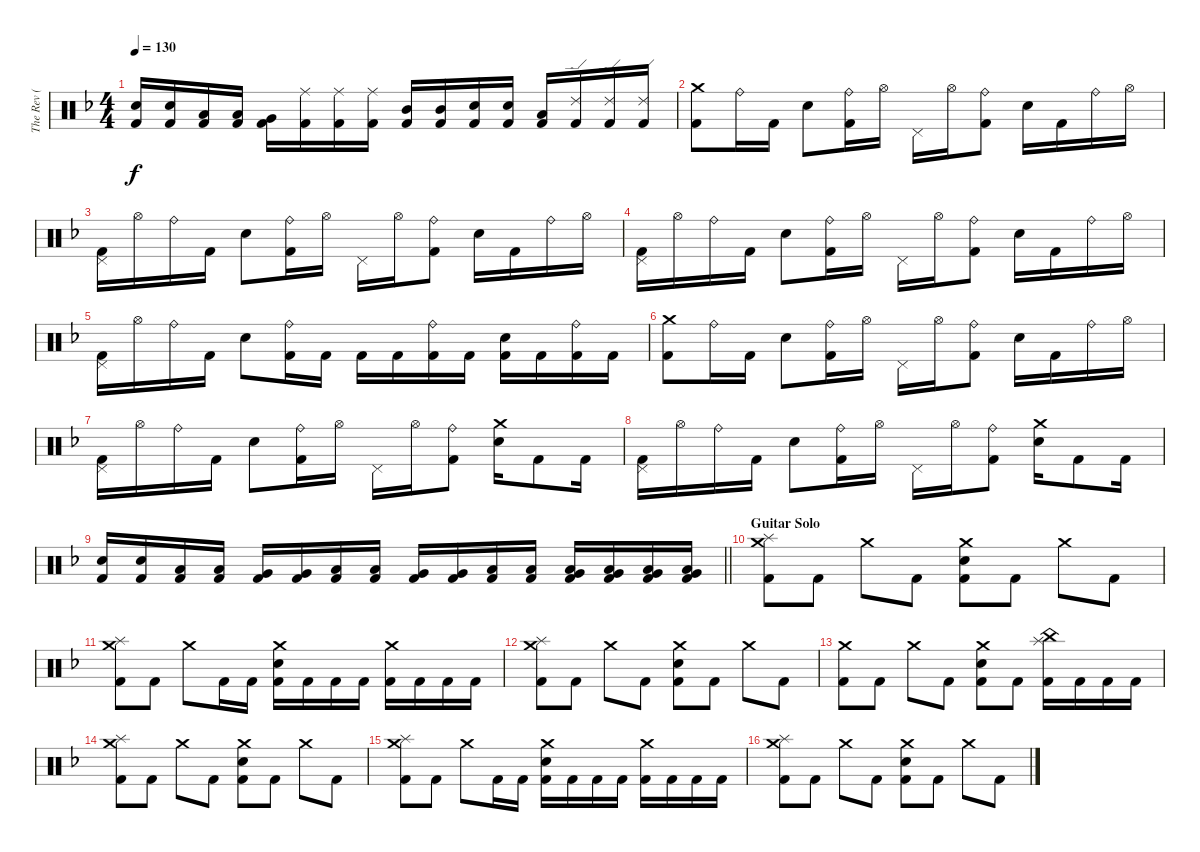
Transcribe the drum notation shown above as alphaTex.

\track ("The Rev ( Drums )" "The Rev ( ") {instrument percussion}
\staff {score}
\articulation defaults
\ts (4 4)
\tempo 130
\clef neutral
\ks f
("Snare (hit) 2" "Kick (hit) 2").16{dy f} ("Snare (hit) 2" "Kick (hit) 2").16 ("Low Tom (hit)" "Kick (hit) 2").16 ("Low Tom (hit)" "Kick (hit) 2").16 ("Very Low Tom (hit)" "Kick (hit) 2").16 ("Ride (middle)" "Kick (hit) 2").16 ("Ride (middle)" "Kick (hit) 2").16 ("Ride (middle)" "Kick (hit) 2").16 ("Mid Tom (hit)" "Kick (hit) 2").16 ("Mid Tom (hit)" "Kick (hit) 2").16 ("Snare (hit) 2" "Kick (hit) 2").16 ("Snare (hit) 2" "Kick (hit) 2").16 ("Low Tom (hit)" "Kick (hit) 2").16 ("Ride (edge) 2" "Kick (hit) 2").16 ("Ride (edge) 2" "Kick (hit) 2").16 ("Ride (edge) 2" "Kick (hit) 2").16 |
("Crash medium (hit)" "Kick (hit) 2").8 "Ride (bell)".16 "Kick (hit) 2".16 "Snare (hit) 2".8 ("Ride (bell)" "Kick (hit) 2").16 "Hi-Hat (open)".16 "Pedal Hi-Hat (hit)".16 "Hi-Hat (open)".16 ("Ride (bell)" "Kick (hit) 2").8 "Snare (hit) 2".16 "Kick (hit) 2".16 "Ride (bell)".16 "Hi-Hat (open)".16 |
("Pedal Hi-Hat (hit)" "Kick (hit) 2").16 "Hi-Hat (open)".16 "Ride (bell)".16 "Kick (hit) 2".16 "Snare (hit) 2".8 ("Ride (bell)" "Kick (hit) 2").16 "Hi-Hat (open)".16 "Pedal Hi-Hat (hit)".16 "Hi-Hat (open)".16 ("Ride (bell)" "Kick (hit) 2").8 "Snare (hit) 2".16 "Kick (hit) 2".16 "Ride (bell)".16 "Hi-Hat (open)".16 |
("Pedal Hi-Hat (hit)" "Kick (hit) 2").16 "Hi-Hat (open)".16 "Ride (bell)".16 "Kick (hit) 2".16 "Snare (hit) 2".8 ("Ride (bell)" "Kick (hit) 2").16 "Hi-Hat (open)".16 "Pedal Hi-Hat (hit)".16 "Hi-Hat (open)".16 ("Ride (bell)" "Kick (hit) 2").8 "Snare (hit) 2".16 "Kick (hit) 2".16 "Ride (bell)".16 "Hi-Hat (open)".16 |
("Pedal Hi-Hat (hit)" "Kick (hit) 2").16 "Hi-Hat (open)".16 "Ride (bell)".16 "Kick (hit) 2".16 "Snare (hit) 2".8 ("Ride (bell)" "Kick (hit) 2").16 "Kick (hit) 2".16 "Kick (hit) 2".16 "Kick (hit) 2".16 ("Ride (bell)" "Kick (hit) 2").16 "Kick (hit) 2".16 ("Snare (hit) 2" "Kick (hit) 2").16 "Kick (hit) 2".16 ("Ride (bell)" "Kick (hit) 2").16 "Kick (hit) 2".16 |
("Crash medium (hit)" "Kick (hit) 2").8 "Ride (bell)".16 "Kick (hit) 2".16 "Snare (hit) 2".8 ("Ride (bell)" "Kick (hit) 2").16 "Hi-Hat (open)".16 "Pedal Hi-Hat (hit)".16 "Hi-Hat (open)".16 ("Ride (bell)" "Kick (hit) 2").8 "Snare (hit) 2".16 "Kick (hit) 2".16 "Ride (bell)".16 "Hi-Hat (open)".16 |
("Pedal Hi-Hat (hit)" "Kick (hit) 2").16 "Hi-Hat (open)".16 "Ride (bell)".16 "Kick (hit) 2".16 "Snare (hit) 2".8 ("Ride (bell)" "Kick (hit) 2").16 "Hi-Hat (open)".16 "Pedal Hi-Hat (hit)".16 "Hi-Hat (open)".16 ("Ride (bell)" "Kick (hit) 2").8 ("Crash medium (hit)" "Snare (hit) 2").16 "Kick (hit) 2".8 "Kick (hit) 2".16 |
("Pedal Hi-Hat (hit)" "Kick (hit) 2").16 "Hi-Hat (open)".16 "Ride (bell)".16 "Kick (hit) 2".16 "Snare (hit) 2".8 ("Ride (bell)" "Kick (hit) 2").16 "Hi-Hat (open)".16 "Pedal Hi-Hat (hit)".16 "Hi-Hat (open)".16 ("Ride (bell)" "Kick (hit) 2").8 ("Crash medium (hit)" "Snare (hit) 2").16 "Kick (hit) 2".8 "Kick (hit) 2".16 |
\barLineRight lightlight
("Snare (hit) 2" "Kick (hit) 2").16 ("Snare (hit) 2" "Kick (hit) 2").16 ("Low Tom (hit)" "Kick (hit) 2").16 ("Low Tom (hit)" "Kick (hit) 2").16 ("Very Low Tom (hit)" "Kick (hit) 2").16 ("Very Low Tom (hit)" "Kick (hit) 2").16 ("Low Floor Tom (hit)" "Kick (hit) 2").16 ("Low Floor Tom (hit)" "Kick (hit) 2").16 ("Very Low Tom (hit)" "Kick (hit) 2").16 ("Very Low Tom (hit)" "Kick (hit) 2").16 ("Low Floor Tom (hit)" "Kick (hit) 2").16 ("Low Floor Tom (hit)" "Kick (hit) 2").16 ("Very Low Tom (hit)" "Low Floor Tom (hit)" "Kick (hit) 2").16 ("Very Low Tom (hit)" "Low Floor Tom (hit)" "Kick (hit) 2").16 ("Very Low Tom (hit)" "Low Floor Tom (hit)" "Kick (hit) 2").16 ("Very Low Tom (hit)" "Low Floor Tom (hit)" "Kick (hit) 2").16 |
\section ("" "Guitar Solo")
("Crash medium (hit)" "Splash (hit)" "Kick (hit) 2").8 "Kick (hit) 2".8 "Crash medium (hit)".8 "Kick (hit) 2".8 ("Crash medium (hit)" "Snare (hit) 2" "Kick (hit) 2").8 "Kick (hit) 2".8 "Crash medium (hit)".8 "Kick (hit) 2".8 |
("Crash medium (hit)" "Splash (hit)" "Kick (hit) 2").8 "Kick (hit) 2".8 "Crash medium (hit)".8 "Kick (hit) 2".16 "Kick (hit) 2".16 ("Crash medium (hit)" "Snare (hit) 2" "Kick (hit) 2").16 "Kick (hit) 2".16 "Kick (hit) 2".16 "Kick (hit) 2".16 ("Crash medium (hit)" "Kick (hit) 2").16 "Kick (hit) 2".16 "Kick (hit) 2".16 "Kick (hit) 2".16 |
("Crash medium (hit)" "Splash (hit)" "Kick (hit) 2").8 "Kick (hit) 2".8 "Crash medium (hit)".8 "Kick (hit) 2".8 ("Crash medium (hit)" "Snare (hit) 2" "Kick (hit) 2").8 "Kick (hit) 2".8 "Crash medium (hit)".8 "Kick (hit) 2".8 |
("Crash medium (hit)" "Kick (hit) 2").8 "Kick (hit) 2".8 "Crash medium (hit)".8 "Kick (hit) 2".8 ("Crash medium (hit)" "Snare (hit) 2" "Kick (hit) 2").8 "Kick (hit) 2".8 ("China (hit)" "Splash (hit)" "Kick (hit) 2").16 "Kick (hit) 2".16 "Kick (hit) 2".16 "Kick (hit) 2".16 |
("Crash medium (hit)" "Splash (hit)" "Kick (hit) 2").8 "Kick (hit) 2".8 "Crash medium (hit)".8 "Kick (hit) 2".8 ("Crash medium (hit)" "Snare (hit) 2" "Kick (hit) 2").8 "Kick (hit) 2".8 "Crash medium (hit)".8 "Kick (hit) 2".8 |
("Crash medium (hit)" "Splash (hit)" "Kick (hit) 2").8 "Kick (hit) 2".8 "Crash medium (hit)".8 "Kick (hit) 2".16 "Kick (hit) 2".16 ("Crash medium (hit)" "Snare (hit) 2" "Kick (hit) 2").16 "Kick (hit) 2".16 "Kick (hit) 2".16 "Kick (hit) 2".16 ("Crash medium (hit)" "Kick (hit) 2").16 "Kick (hit) 2".16 "Kick (hit) 2".16 "Kick (hit) 2".16 |
("Crash medium (hit)" "Splash (hit)" "Kick (hit) 2").8 "Kick (hit) 2".8 "Crash medium (hit)".8 "Kick (hit) 2".8 ("Crash medium (hit)" "Snare (hit) 2" "Kick (hit) 2").8 "Kick (hit) 2".8 "Crash medium (hit)".8 "Kick (hit) 2".8
